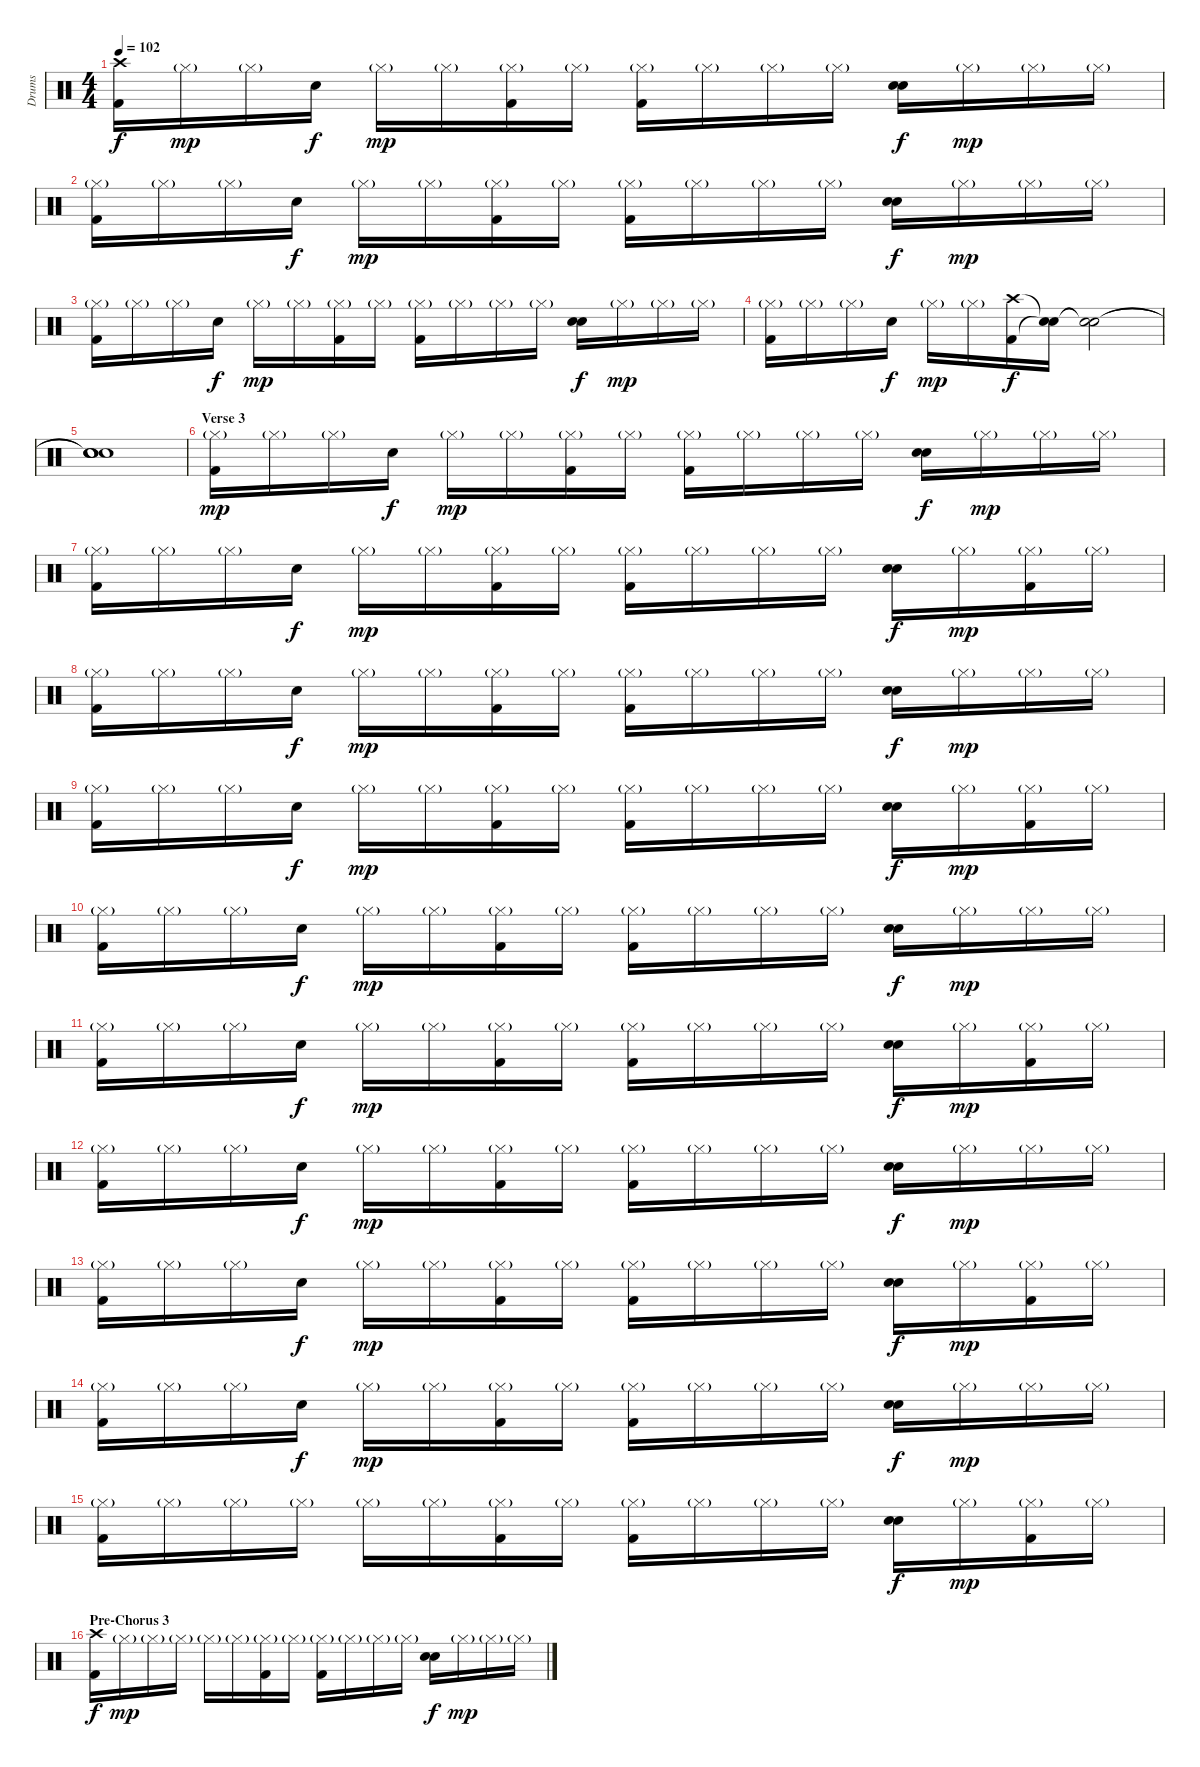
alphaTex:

\track ("Drums" "Drums") {instrument percussion}
\staff {score}
\articulation defaults
\ts (4 4)
\tempo 102
\clef neutral
\ks c
("Crash high (hit)" "Kick (hit) 2").16{dy f} "Hi-Hat (closed)"{g}.16{dy mp} "Hi-Hat (closed)"{g}.16 "Snare (hit) 2".16{dy f} "Hi-Hat (closed)"{g}.16{dy mp} "Hi-Hat (closed)"{g}.16 ("Hi-Hat (closed)"{g} "Kick (hit) 2").16 "Hi-Hat (closed)"{g}.16 ("Hi-Hat (closed)"{g} "Kick (hit) 2").16 "Hi-Hat (closed)"{g}.16 "Hi-Hat (closed)"{g}.16 "Hi-Hat (closed)"{g}.16 ("Snare (hit) 2" "Snare (hit) 2").16{dy f} "Hi-Hat (closed)"{g}.16{dy mp} "Hi-Hat (closed)"{g}.16 "Hi-Hat (closed)"{g}.16 |
("Hi-Hat (closed)"{g} "Kick (hit) 2").16 "Hi-Hat (closed)"{g}.16 "Hi-Hat (closed)"{g}.16 "Snare (hit) 2".16{dy f} "Hi-Hat (closed)"{g}.16{dy mp} "Hi-Hat (closed)"{g}.16 ("Hi-Hat (closed)"{g} "Kick (hit) 2").16 "Hi-Hat (closed)"{g}.16 ("Hi-Hat (closed)"{g} "Kick (hit) 2").16 "Hi-Hat (closed)"{g}.16 "Hi-Hat (closed)"{g}.16 "Hi-Hat (closed)"{g}.16 ("Snare (hit) 2" "Snare (hit) 2").16{dy f} "Hi-Hat (closed)"{g}.16{dy mp} "Hi-Hat (closed)"{g}.16 "Hi-Hat (closed)"{g}.16 |
("Hi-Hat (closed)"{g} "Kick (hit) 2").16 "Hi-Hat (closed)"{g}.16 "Hi-Hat (closed)"{g}.16 "Snare (hit) 2".16{dy f} "Hi-Hat (closed)"{g}.16{dy mp} "Hi-Hat (closed)"{g}.16 ("Hi-Hat (closed)"{g} "Kick (hit) 2").16 "Hi-Hat (closed)"{g}.16 ("Hi-Hat (closed)"{g} "Kick (hit) 2").16 "Hi-Hat (closed)"{g}.16 "Hi-Hat (closed)"{g}.16 "Hi-Hat (closed)"{g}.16 ("Snare (hit) 2" "Snare (hit) 2").16{dy f} "Hi-Hat (closed)"{g}.16{dy mp} "Hi-Hat (closed)"{g}.16 "Hi-Hat (closed)"{g}.16 |
("Hi-Hat (closed)"{g} "Kick (hit) 2").16 "Hi-Hat (closed)"{g}.16 "Hi-Hat (closed)"{g}.16 "Snare (hit) 2".16{dy f} "Hi-Hat (closed)"{g}.16{dy mp} "Hi-Hat (closed)"{g}.16 ("Crash high (hit)" "Kick (hit) 2").16{dy f} ("Snare (hit)"{t} "Snare (hit)"{t}).16 ("Snare (hit)"{t} "Snare (hit)"{t}).2 |
("Snare (hit)"{t} "Snare (hit)"{t} "Snare (hit)" "Snare (hit)").1 |
\section ("" "Verse 3")
("Hi-Hat (closed)"{g} "Kick (hit) 2").16{dy mp} "Hi-Hat (closed)"{g}.16 "Hi-Hat (closed)"{g}.16 "Snare (hit) 2".16{dy f} "Hi-Hat (closed)"{g}.16{dy mp} "Hi-Hat (closed)"{g}.16 ("Hi-Hat (closed)"{g} "Kick (hit) 2").16 "Hi-Hat (closed)"{g}.16 ("Hi-Hat (closed)"{g} "Kick (hit) 2").16 "Hi-Hat (closed)"{g}.16 "Hi-Hat (closed)"{g}.16 "Hi-Hat (closed)"{g}.16 ("Snare (hit) 2" "Snare (hit) 2").16{dy f} "Hi-Hat (closed)"{g}.16{dy mp} "Hi-Hat (closed)"{g}.16 "Hi-Hat (closed)"{g}.16 |
("Hi-Hat (closed)"{g} "Kick (hit) 2").16 "Hi-Hat (closed)"{g}.16 "Hi-Hat (closed)"{g}.16 "Snare (hit) 2".16{dy f} "Hi-Hat (closed)"{g}.16{dy mp} "Hi-Hat (closed)"{g}.16 ("Hi-Hat (closed)"{g} "Kick (hit) 2").16 "Hi-Hat (closed)"{g}.16 ("Hi-Hat (closed)"{g} "Kick (hit) 2").16 "Hi-Hat (closed)"{g}.16 "Hi-Hat (closed)"{g}.16 "Hi-Hat (closed)"{g}.16 ("Snare (hit) 2" "Snare (hit) 2").16{dy f} "Hi-Hat (closed)"{g}.16{dy mp} ("Hi-Hat (closed)"{g} "Kick (hit) 2").16 "Hi-Hat (closed)"{g}.16 |
("Hi-Hat (closed)"{g} "Kick (hit) 2").16 "Hi-Hat (closed)"{g}.16 "Hi-Hat (closed)"{g}.16 "Snare (hit) 2".16{dy f} "Hi-Hat (closed)"{g}.16{dy mp} "Hi-Hat (closed)"{g}.16 ("Hi-Hat (closed)"{g} "Kick (hit) 2").16 "Hi-Hat (closed)"{g}.16 ("Hi-Hat (closed)"{g} "Kick (hit) 2").16 "Hi-Hat (closed)"{g}.16 "Hi-Hat (closed)"{g}.16 "Hi-Hat (closed)"{g}.16 ("Snare (hit) 2" "Snare (hit) 2").16{dy f} "Hi-Hat (closed)"{g}.16{dy mp} "Hi-Hat (closed)"{g}.16 "Hi-Hat (closed)"{g}.16 |
("Hi-Hat (closed)"{g} "Kick (hit) 2").16 "Hi-Hat (closed)"{g}.16 "Hi-Hat (closed)"{g}.16 "Snare (hit) 2".16{dy f} "Hi-Hat (closed)"{g}.16{dy mp} "Hi-Hat (closed)"{g}.16 ("Hi-Hat (closed)"{g} "Kick (hit) 2").16 "Hi-Hat (closed)"{g}.16 ("Hi-Hat (closed)"{g} "Kick (hit) 2").16 "Hi-Hat (closed)"{g}.16 "Hi-Hat (closed)"{g}.16 "Hi-Hat (closed)"{g}.16 ("Snare (hit) 2" "Snare (hit) 2").16{dy f} "Hi-Hat (closed)"{g}.16{dy mp} ("Hi-Hat (closed)"{g} "Kick (hit) 2").16 "Hi-Hat (closed)"{g}.16 |
("Hi-Hat (closed)"{g} "Kick (hit) 2").16 "Hi-Hat (closed)"{g}.16 "Hi-Hat (closed)"{g}.16 "Snare (hit) 2".16{dy f} "Hi-Hat (closed)"{g}.16{dy mp} "Hi-Hat (closed)"{g}.16 ("Hi-Hat (closed)"{g} "Kick (hit) 2").16 "Hi-Hat (closed)"{g}.16 ("Hi-Hat (closed)"{g} "Kick (hit) 2").16 "Hi-Hat (closed)"{g}.16 "Hi-Hat (closed)"{g}.16 "Hi-Hat (closed)"{g}.16 ("Snare (hit) 2" "Snare (hit) 2").16{dy f} "Hi-Hat (closed)"{g}.16{dy mp} "Hi-Hat (closed)"{g}.16 "Hi-Hat (closed)"{g}.16 |
("Hi-Hat (closed)"{g} "Kick (hit) 2").16 "Hi-Hat (closed)"{g}.16 "Hi-Hat (closed)"{g}.16 "Snare (hit) 2".16{dy f} "Hi-Hat (closed)"{g}.16{dy mp} "Hi-Hat (closed)"{g}.16 ("Hi-Hat (closed)"{g} "Kick (hit) 2").16 "Hi-Hat (closed)"{g}.16 ("Hi-Hat (closed)"{g} "Kick (hit) 2").16 "Hi-Hat (closed)"{g}.16 "Hi-Hat (closed)"{g}.16 "Hi-Hat (closed)"{g}.16 ("Snare (hit) 2" "Snare (hit) 2").16{dy f} "Hi-Hat (closed)"{g}.16{dy mp} ("Hi-Hat (closed)"{g} "Kick (hit) 2").16 "Hi-Hat (closed)"{g}.16 |
("Hi-Hat (closed)"{g} "Kick (hit) 2").16 "Hi-Hat (closed)"{g}.16 "Hi-Hat (closed)"{g}.16 "Snare (hit) 2".16{dy f} "Hi-Hat (closed)"{g}.16{dy mp} "Hi-Hat (closed)"{g}.16 ("Hi-Hat (closed)"{g} "Kick (hit) 2").16 "Hi-Hat (closed)"{g}.16 ("Hi-Hat (closed)"{g} "Kick (hit) 2").16 "Hi-Hat (closed)"{g}.16 "Hi-Hat (closed)"{g}.16 "Hi-Hat (closed)"{g}.16 ("Snare (hit) 2" "Snare (hit) 2").16{dy f} "Hi-Hat (closed)"{g}.16{dy mp} "Hi-Hat (closed)"{g}.16 "Hi-Hat (closed)"{g}.16 |
("Hi-Hat (closed)"{g} "Kick (hit) 2").16 "Hi-Hat (closed)"{g}.16 "Hi-Hat (closed)"{g}.16 "Snare (hit) 2".16{dy f} "Hi-Hat (closed)"{g}.16{dy mp} "Hi-Hat (closed)"{g}.16 ("Hi-Hat (closed)"{g} "Kick (hit) 2").16 "Hi-Hat (closed)"{g}.16 ("Hi-Hat (closed)"{g} "Kick (hit) 2").16 "Hi-Hat (closed)"{g}.16 "Hi-Hat (closed)"{g}.16 "Hi-Hat (closed)"{g}.16 ("Snare (hit) 2" "Snare (hit) 2").16{dy f} "Hi-Hat (closed)"{g}.16{dy mp} ("Hi-Hat (closed)"{g} "Kick (hit) 2").16 "Hi-Hat (closed)"{g}.16 |
("Hi-Hat (closed)"{g} "Kick (hit) 2").16 "Hi-Hat (closed)"{g}.16 "Hi-Hat (closed)"{g}.16 "Snare (hit) 2".16{dy f} "Hi-Hat (closed)"{g}.16{dy mp} "Hi-Hat (closed)"{g}.16 ("Hi-Hat (closed)"{g} "Kick (hit) 2").16 "Hi-Hat (closed)"{g}.16 ("Hi-Hat (closed)"{g} "Kick (hit) 2").16 "Hi-Hat (closed)"{g}.16 "Hi-Hat (closed)"{g}.16 "Hi-Hat (closed)"{g}.16 ("Snare (hit) 2" "Snare (hit) 2").16{dy f} "Hi-Hat (closed)"{g}.16{dy mp} "Hi-Hat (closed)"{g}.16 "Hi-Hat (closed)"{g}.16 |
("Hi-Hat (closed)"{g} "Kick (hit) 2").16 "Hi-Hat (closed)"{g}.16 "Hi-Hat (closed)"{g}.16 "Hi-Hat (closed)"{g}.16 "Hi-Hat (closed)"{g}.16 "Hi-Hat (closed)"{g}.16 ("Hi-Hat (closed)"{g} "Kick (hit) 2").16 "Hi-Hat (closed)"{g}.16 ("Hi-Hat (closed)"{g} "Kick (hit) 2").16 "Hi-Hat (closed)"{g}.16 "Hi-Hat (closed)"{g}.16 "Hi-Hat (closed)"{g}.16 ("Snare (hit) 2" "Snare (hit) 2").16{dy f} "Hi-Hat (closed)"{g}.16{dy mp} ("Hi-Hat (closed)"{g} "Kick (hit) 2").16 "Hi-Hat (closed)"{g}.16 |
\section ("" "Pre-Chorus 3")
("Crash high (hit)" "Kick (hit) 2").16{dy f} "Hi-Hat (closed)"{g}.16{dy mp} "Hi-Hat (closed)"{g}.16 "Hi-Hat (closed)"{g}.16 "Hi-Hat (closed)"{g}.16 "Hi-Hat (closed)"{g}.16 ("Hi-Hat (closed)"{g} "Kick (hit) 2").16 "Hi-Hat (closed)"{g}.16 ("Hi-Hat (closed)"{g} "Kick (hit) 2").16 "Hi-Hat (closed)"{g}.16 "Hi-Hat (closed)"{g}.16 "Hi-Hat (closed)"{g}.16 ("Snare (hit) 2" "Snare (hit) 2").16{dy f} "Hi-Hat (closed)"{g}.16{dy mp} "Hi-Hat (closed)"{g}.16 "Hi-Hat (closed)"{g}.16
